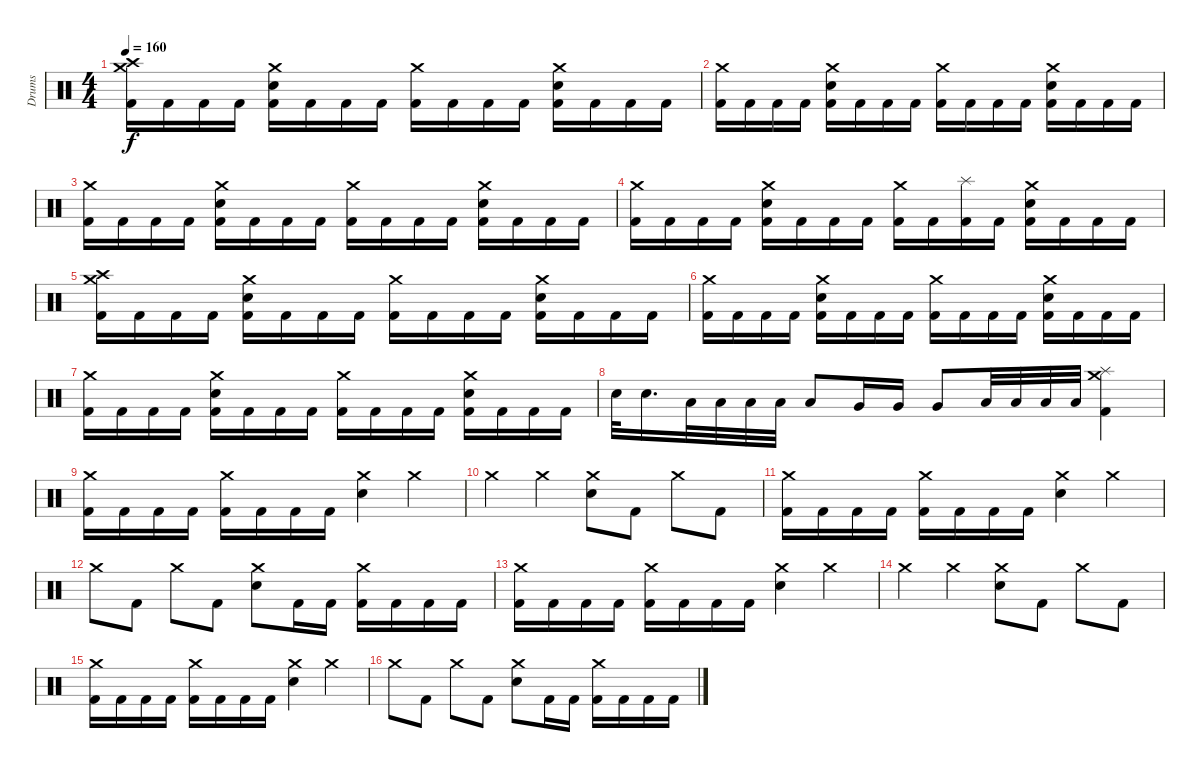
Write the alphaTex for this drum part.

\track ("Drums" "Drums") {instrument percussion}
\staff {score}
\articulation defaults
\ts (4 4)
\tempo 160
\clef neutral
\ks c
("Crash medium (hit)" "Crash high (hit)" "Kick (hit) 2").16{dy f} "Kick (hit) 2".16 "Kick (hit) 2".16 "Kick (hit) 2".16 ("Crash medium (hit)" "Electric Snare (hit)" "Kick (hit) 2").16 "Kick (hit) 2".16 "Kick (hit) 2".16 "Kick (hit) 2".16 ("Crash medium (hit)" "Kick (hit) 2").16 "Kick (hit) 2".16 "Kick (hit) 2".16 "Kick (hit) 2".16 ("Crash medium (hit)" "Electric Snare (hit)" "Kick (hit) 2").16 "Kick (hit) 2".16 "Kick (hit) 2".16 "Kick (hit) 2".16 |
("Crash medium (hit)" "Kick (hit) 2").16 "Kick (hit) 2".16 "Kick (hit) 2".16 "Kick (hit) 2".16 ("Crash medium (hit)" "Electric Snare (hit)" "Kick (hit) 2").16 "Kick (hit) 2".16 "Kick (hit) 2".16 "Kick (hit) 2".16 ("Crash medium (hit)" "Kick (hit) 2").16 "Kick (hit) 2".16 "Kick (hit) 2".16 "Kick (hit) 2".16 ("Crash medium (hit)" "Electric Snare (hit)" "Kick (hit) 2").16 "Kick (hit) 2".16 "Kick (hit) 2".16 "Kick (hit) 2".16 |
("Crash medium (hit)" "Kick (hit) 2").16 "Kick (hit) 2".16 "Kick (hit) 2".16 "Kick (hit) 2".16 ("Crash medium (hit)" "Electric Snare (hit)" "Kick (hit) 2").16 "Kick (hit) 2".16 "Kick (hit) 2".16 "Kick (hit) 2".16 ("Crash medium (hit)" "Kick (hit) 2").16 "Kick (hit) 2".16 "Kick (hit) 2".16 "Kick (hit) 2".16 ("Crash medium (hit)" "Electric Snare (hit)" "Kick (hit) 2").16 "Kick (hit) 2".16 "Kick (hit) 2".16 "Kick (hit) 2".16 |
("Crash medium (hit)" "Kick (hit) 2").16 "Kick (hit) 2".16 "Kick (hit) 2".16 "Kick (hit) 2".16 ("Crash medium (hit)" "Electric Snare (hit)" "Kick (hit) 2").16 "Kick (hit) 2".16 "Kick (hit) 2".16 "Kick (hit) 2".16 ("Crash medium (hit)" "Kick (hit) 2").16 "Kick (hit) 2".16 ("Splash (hit)" "Kick (hit) 2").16 "Kick (hit) 2".16 ("Crash medium (hit)" "Electric Snare (hit)" "Kick (hit) 2").16 "Kick (hit) 2".16 "Kick (hit) 2".16 "Kick (hit) 2".16 |
("Crash medium (hit)" "Crash high (hit)" "Kick (hit) 2").16 "Kick (hit) 2".16 "Kick (hit) 2".16 "Kick (hit) 2".16 ("Crash medium (hit)" "Electric Snare (hit)" "Kick (hit) 2").16 "Kick (hit) 2".16 "Kick (hit) 2".16 "Kick (hit) 2".16 ("Crash medium (hit)" "Kick (hit) 2").16 "Kick (hit) 2".16 "Kick (hit) 2".16 "Kick (hit) 2".16 ("Crash medium (hit)" "Electric Snare (hit)" "Kick (hit) 2").16 "Kick (hit) 2".16 "Kick (hit) 2".16 "Kick (hit) 2".16 |
("Crash medium (hit)" "Kick (hit) 2").16 "Kick (hit) 2".16 "Kick (hit) 2".16 "Kick (hit) 2".16 ("Crash medium (hit)" "Electric Snare (hit)" "Kick (hit) 2").16 "Kick (hit) 2".16 "Kick (hit) 2".16 "Kick (hit) 2".16 ("Crash medium (hit)" "Kick (hit) 2").16 "Kick (hit) 2".16 "Kick (hit) 2".16 "Kick (hit) 2".16 ("Crash medium (hit)" "Electric Snare (hit)" "Kick (hit) 2").16 "Kick (hit) 2".16 "Kick (hit) 2".16 "Kick (hit) 2".16 |
("Crash medium (hit)" "Kick (hit) 2").16 "Kick (hit) 2".16 "Kick (hit) 2".16 "Kick (hit) 2".16 ("Crash medium (hit)" "Electric Snare (hit)" "Kick (hit) 2").16 "Kick (hit) 2".16 "Kick (hit) 2".16 "Kick (hit) 2".16 ("Crash medium (hit)" "Kick (hit) 2").16 "Kick (hit) 2".16 "Kick (hit) 2".16 "Kick (hit) 2".16 ("Crash medium (hit)" "Electric Snare (hit)" "Kick (hit) 2").16 "Kick (hit) 2".16 "Kick (hit) 2".16 "Kick (hit) 2".16 |
"Electric Snare (hit)".32 "Electric Snare (hit)".16{d} "Low Tom (hit)".32 "Low Tom (hit)".32 "Low Tom (hit)".32 "Low Tom (hit)".32 "Low Tom (hit)".8 "Very Low Tom (hit)".16 "Very Low Tom (hit)".16 "Very Low Tom (hit)".8 "Low Floor Tom (hit)".32 "Low Floor Tom (hit)".32 "Low Floor Tom (hit)".32 "Low Floor Tom (hit)".32 ("Splash (hit)" "Crash medium (hit)" "Kick (hit) 2").4 |
("Crash medium (hit)" "Kick (hit) 2").16 "Kick (hit) 2".16 "Kick (hit) 2".16 "Kick (hit) 2".16 ("Crash medium (hit)" "Kick (hit) 2").16 "Kick (hit) 2".16 "Kick (hit) 2".16 "Kick (hit) 2".16 ("Crash medium (hit)" "Electric Snare (hit)").4 "Crash medium (hit)".4 |
"Crash medium (hit)".4 "Crash medium (hit)".4 ("Crash medium (hit)" "Electric Snare (hit)").8 "Kick (hit) 2".8 "Crash medium (hit)".8 "Kick (hit) 2".8 |
("Crash medium (hit)" "Kick (hit) 2").16 "Kick (hit) 2".16 "Kick (hit) 2".16 "Kick (hit) 2".16 ("Crash medium (hit)" "Kick (hit) 2").16 "Kick (hit) 2".16 "Kick (hit) 2".16 "Kick (hit) 2".16 ("Crash medium (hit)" "Electric Snare (hit)").4 "Crash medium (hit)".4 |
"Crash medium (hit)".8 "Kick (hit) 2".8 "Crash medium (hit)".8 "Kick (hit) 2".8 ("Crash medium (hit)" "Electric Snare (hit)").8 "Kick (hit) 2".16 "Kick (hit) 2".16 ("Crash medium (hit)" "Kick (hit) 2").16 "Kick (hit) 2".16 "Kick (hit) 2".16 "Kick (hit) 2".16 |
("Crash medium (hit)" "Kick (hit) 2").16 "Kick (hit) 2".16 "Kick (hit) 2".16 "Kick (hit) 2".16 ("Crash medium (hit)" "Kick (hit) 2").16 "Kick (hit) 2".16 "Kick (hit) 2".16 "Kick (hit) 2".16 ("Crash medium (hit)" "Electric Snare (hit)").4 "Crash medium (hit)".4 |
"Crash medium (hit)".4 "Crash medium (hit)".4 ("Crash medium (hit)" "Electric Snare (hit)").8 "Kick (hit) 2".8 "Crash medium (hit)".8 "Kick (hit) 2".8 |
("Crash medium (hit)" "Kick (hit) 2").16 "Kick (hit) 2".16 "Kick (hit) 2".16 "Kick (hit) 2".16 ("Crash medium (hit)" "Kick (hit) 2").16 "Kick (hit) 2".16 "Kick (hit) 2".16 "Kick (hit) 2".16 ("Crash medium (hit)" "Electric Snare (hit)").4 "Crash medium (hit)".4 |
"Crash medium (hit)".8 "Kick (hit) 2".8 "Crash medium (hit)".8 "Kick (hit) 2".8 ("Crash medium (hit)" "Electric Snare (hit)").8 "Kick (hit) 2".16 "Kick (hit) 2".16 ("Crash medium (hit)" "Kick (hit) 2").16 "Kick (hit) 2".16 "Kick (hit) 2".16 "Kick (hit) 2".16
